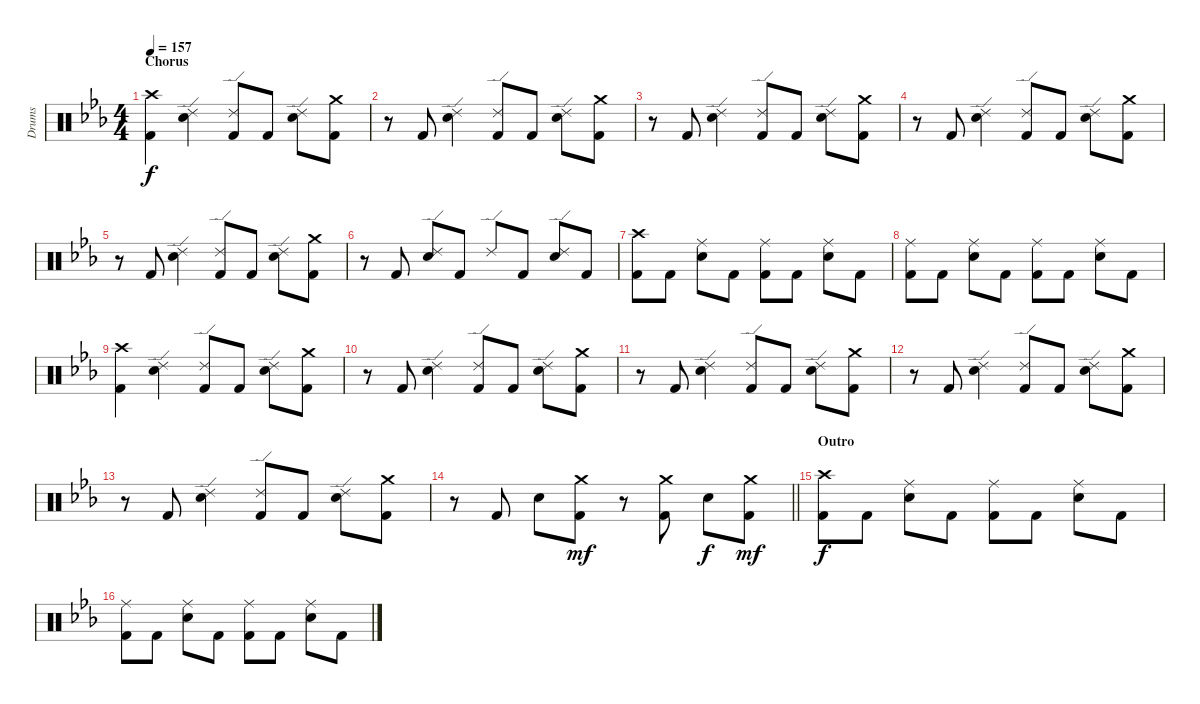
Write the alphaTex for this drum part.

\track ("Drums" "Drums") {instrument percussion}
\staff {score}
\articulation defaults
\ts (4 4)
\section ("" "Chorus")
\tempo 157
\clef neutral
\ks cminor
("Crash high (hit)" "Kick (hit) 2").4{dy f} ("Ride (edge) 2" "Electric Snare (hit)").4 ("Ride (edge) 2" "Kick (hit) 2").8 "Kick (hit) 2".8 ("Ride (edge) 2" "Electric Snare (hit)").8 ("Crash medium (hit)" "Kick (hit) 2").8 |
r.8 "Kick (hit) 2".8 ("Ride (edge) 2" "Electric Snare (hit)").4 ("Ride (edge) 2" "Kick (hit) 2").8 "Kick (hit) 2".8 ("Ride (edge) 2" "Electric Snare (hit)").8 ("Crash medium (hit)" "Kick (hit) 2").8 |
r.8 "Kick (hit) 2".8 ("Ride (edge) 2" "Electric Snare (hit)").4 ("Ride (edge) 2" "Kick (hit) 2").8 "Kick (hit) 2".8 ("Ride (edge) 2" "Electric Snare (hit)").8 ("Crash medium (hit)" "Kick (hit) 2").8 |
r.8 "Kick (hit) 2".8 ("Ride (edge) 2" "Electric Snare (hit)").4 ("Ride (edge) 2" "Kick (hit) 2").8 "Kick (hit) 2".8 ("Ride (edge) 2" "Electric Snare (hit)").8 ("Crash medium (hit)" "Kick (hit) 2").8 |
r.8 "Kick (hit) 2".8 ("Ride (edge) 2" "Electric Snare (hit)").4 ("Ride (edge) 2" "Kick (hit) 2").8 "Kick (hit) 2".8 ("Ride (edge) 2" "Electric Snare (hit)").8 ("Crash medium (hit)" "Kick (hit) 2").8 |
r.8 "Kick (hit) 2".8 ("Ride (edge) 2" "Electric Snare (hit)").8 "Kick (hit) 2".8 "Ride (edge) 2".8 "Kick (hit) 2".8 ("Ride (edge) 2" "Electric Snare (hit)").8 "Kick (hit) 2".8 |
("Crash high (hit)" "Kick (hit) 2").8 "Kick (hit) 2".8 ("Ride (middle)" "Electric Snare (hit)").8 "Kick (hit) 2".8 ("Ride (middle)" "Kick (hit) 2").8 "Kick (hit) 2".8 ("Ride (middle)" "Electric Snare (hit)").8 "Kick (hit) 2".8 |
("Ride (middle)" "Kick (hit) 2").8 "Kick (hit) 2".8 ("Ride (middle)" "Electric Snare (hit)").8 "Kick (hit) 2".8 ("Ride (middle)" "Kick (hit) 2").8 "Kick (hit) 2".8 ("Ride (middle)" "Electric Snare (hit)").8 "Kick (hit) 2".8 |
("Crash high (hit)" "Kick (hit) 2").4 ("Ride (edge) 2" "Electric Snare (hit)").4 ("Ride (edge) 2" "Kick (hit) 2").8 "Kick (hit) 2".8 ("Ride (edge) 2" "Electric Snare (hit)").8 ("Crash medium (hit)" "Kick (hit) 2").8 |
r.8 "Kick (hit) 2".8 ("Ride (edge) 2" "Electric Snare (hit)").4 ("Ride (edge) 2" "Kick (hit) 2").8 "Kick (hit) 2".8 ("Ride (edge) 2" "Electric Snare (hit)").8 ("Crash medium (hit)" "Kick (hit) 2").8 |
r.8 "Kick (hit) 2".8 ("Ride (edge) 2" "Electric Snare (hit)").4 ("Ride (edge) 2" "Kick (hit) 2").8 "Kick (hit) 2".8 ("Ride (edge) 2" "Electric Snare (hit)").8 ("Crash medium (hit)" "Kick (hit) 2").8 |
r.8 "Kick (hit) 2".8 ("Ride (edge) 2" "Electric Snare (hit)").4 ("Ride (edge) 2" "Kick (hit) 2").8 "Kick (hit) 2".8 ("Ride (edge) 2" "Electric Snare (hit)").8 ("Crash medium (hit)" "Kick (hit) 2").8 |
r.8 "Kick (hit) 2".8 ("Ride (edge) 2" "Electric Snare (hit)").4 ("Ride (edge) 2" "Kick (hit) 2").8 "Kick (hit) 2".8 ("Ride (edge) 2" "Electric Snare (hit)").8 ("Crash medium (hit)" "Kick (hit) 2").8 |
\barLineRight lightlight
r.8 "Kick (hit) 2".8 "Electric Snare (hit)".8 ("Crash medium (hit)" "Kick (hit) 2").8{dy mf} r.8 ("Crash medium (hit)" "Kick (hit) 2").8 "Electric Snare (hit)".8{dy f} ("Crash medium (hit)" "Kick (hit) 2").8{dy mf} |
\section ("" "Outro")
("Crash high (hit)" "Kick (hit) 2").8{dy f} "Kick (hit) 2".8 ("Ride (middle)" "Electric Snare (hit)").8 "Kick (hit) 2".8 ("Ride (middle)" "Kick (hit) 2").8 "Kick (hit) 2".8 ("Ride (middle)" "Electric Snare (hit)").8 "Kick (hit) 2".8 |
("Ride (middle)" "Kick (hit) 2").8 "Kick (hit) 2".8 ("Ride (middle)" "Electric Snare (hit)").8 "Kick (hit) 2".8 ("Ride (middle)" "Kick (hit) 2").8 "Kick (hit) 2".8 ("Ride (middle)" "Electric Snare (hit)").8 "Kick (hit) 2".8
